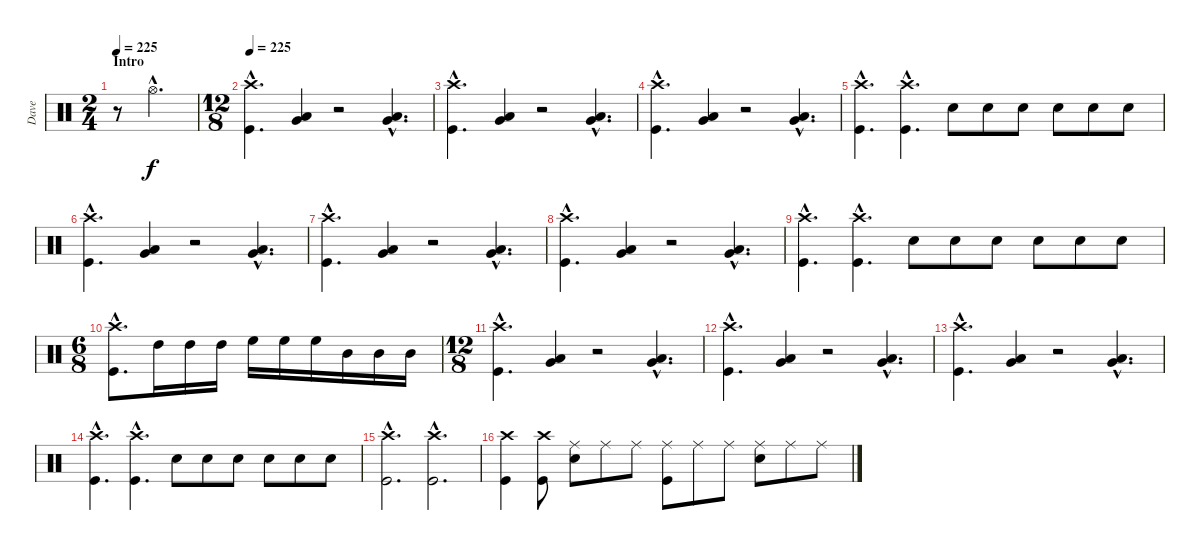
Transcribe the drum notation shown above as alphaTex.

\track ("Dave" "Dave") {instrument percussion}
\staff {score}
\articulation defaults
\ts (2 4)
\section ("" "Intro")
\tempo 225
\clef neutral
\ks c
r.8{dy f} "Hi-Hat (open)"{hac}.4{d} |
\ts (12 8)
\tempo 225
("Crash high (hit)"{hac} "Kick (hit)"{hac}).4{d} ("Very Low Tom (hit)" "Low Floor Tom (hit)").4 r.2 ("Very Low Tom (hit)"{hac} "Low Floor Tom (hit)"{hac}).4{d} |
("Crash high (hit)"{hac} "Kick (hit)"{hac}).4{d} ("Very Low Tom (hit)" "Low Floor Tom (hit)").4 r.2 ("Very Low Tom (hit)"{hac} "Low Floor Tom (hit)"{hac}).4{d} |
("Crash high (hit)"{hac} "Kick (hit)"{hac}).4{d} ("Very Low Tom (hit)" "Low Floor Tom (hit)").4 r.2 ("Very Low Tom (hit)"{hac} "Low Floor Tom (hit)"{hac}).4{d} |
("Crash high (hit)"{hac} "Kick (hit)"{hac}).4{d} ("Crash high (hit)"{hac} "Kick (hit)"{hac}).4{d} "Snare (hit) 2".8 "Snare (hit) 2".8 "Snare (hit) 2".8 "Snare (hit) 2".8 "Snare (hit) 2".8 "Snare (hit) 2".8 |
("Crash high (hit)"{hac} "Kick (hit)"{hac}).4{d} ("Very Low Tom (hit)" "Low Floor Tom (hit)").4 r.2 ("Very Low Tom (hit)"{hac} "Low Floor Tom (hit)"{hac}).4{d} |
("Crash high (hit)"{hac} "Kick (hit)"{hac}).4{d} ("Very Low Tom (hit)" "Low Floor Tom (hit)").4 r.2 ("Very Low Tom (hit)"{hac} "Low Floor Tom (hit)"{hac}).4{d} |
("Crash high (hit)"{hac} "Kick (hit)"{hac}).4{d} ("Very Low Tom (hit)" "Low Floor Tom (hit)").4 r.2 ("Very Low Tom (hit)"{hac} "Low Floor Tom (hit)"{hac}).4{d} |
("Crash high (hit)"{hac} "Kick (hit)"{hac}).4{d} ("Crash high (hit)"{hac} "Kick (hit)"{hac}).4{d} "Snare (hit) 2".8 "Snare (hit) 2".8 "Snare (hit) 2".8 "Snare (hit) 2".8 "Snare (hit) 2".8 "Snare (hit) 2".8 |
\ts (6 8)
("Crash high (hit)"{hac} "Kick (hit)"{hac}).8{d} "High Tom (hit)".16 "High Tom (hit)".16 "High Tom (hit)".16 "High Floor Tom (hit)".16 "High Floor Tom (hit)".16 "High Floor Tom (hit)".16 "Mid Tom (hit)".16 "Mid Tom (hit)".16 "Mid Tom (hit)".16 |
\ts (12 8)
("Crash high (hit)"{hac} "Kick (hit)"{hac}).4{d} ("Very Low Tom (hit)" "Low Floor Tom (hit)").4 r.2 ("Very Low Tom (hit)"{hac} "Low Floor Tom (hit)"{hac}).4{d} |
("Crash high (hit)"{hac} "Kick (hit)"{hac}).4{d} ("Very Low Tom (hit)" "Low Floor Tom (hit)").4 r.2 ("Very Low Tom (hit)"{hac} "Low Floor Tom (hit)"{hac}).4{d} |
("Crash high (hit)"{hac} "Kick (hit)"{hac}).4{d} ("Very Low Tom (hit)" "Low Floor Tom (hit)").4 r.2 ("Very Low Tom (hit)"{hac} "Low Floor Tom (hit)"{hac}).4{d} |
("Crash high (hit)"{hac} "Kick (hit)"{hac}).4{d} ("Crash high (hit)"{hac} "Kick (hit)"{hac}).4{d} "Snare (hit) 2".8 "Snare (hit) 2".8 "Snare (hit) 2".8 "Snare (hit) 2".8 "Snare (hit) 2".8 "Snare (hit) 2".8 |
("Crash high (hit)"{hac} "Kick (hit)"{hac}).2{d} ("Crash high (hit)"{hac} "Kick (hit)"{hac}).2{d} |
("Crash high (hit)" "Kick (hit)").4 ("Crash high (hit)" "Kick (hit)").8 ("Ride (middle)" "Snare (hit) 2").8 "Ride (middle)".8 "Ride (middle)".8 ("Ride (middle)" "Kick (hit)").8 "Ride (middle)".8 "Ride (middle)".8 ("Ride (middle)" "Snare (hit) 2").8 "Ride (middle)".8 "Ride (middle)".8
